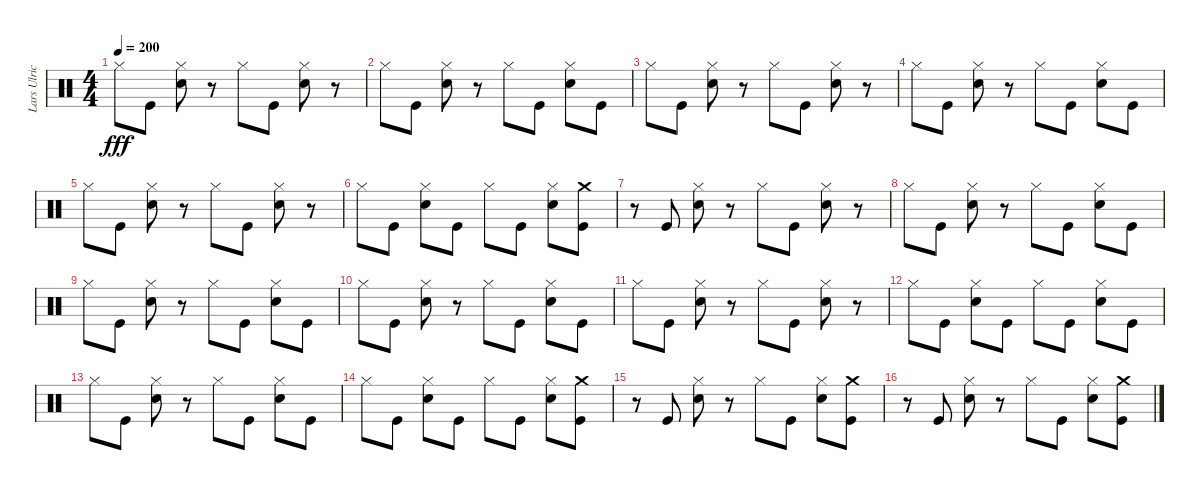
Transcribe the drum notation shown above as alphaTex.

\track ("Lars Ulrich" "Lars Ulric") {instrument percussion}
\staff {score}
\articulation defaults
\ts (4 4)
\tempo 200
\clef neutral
\ks c "Hi-Hat (closed)".8{dy fff} "Kick (hit)".8
("Hi-Hat (closed)" "Snare (hit) 2").8 r.8 "Hi-Hat (closed)".8 "Kick (hit)".8 ("Snare (hit) 2" "Hi-Hat (closed)").8 r.8 |
"Hi-Hat (closed)".8 "Kick (hit)".8 ("Hi-Hat (closed)" "Snare (hit) 2").8 r.8 "Hi-Hat (closed)".8 "Kick (hit)".8 ("Hi-Hat (closed)" "Snare (hit) 2").8 "Kick (hit)".8 |
"Hi-Hat (closed)".8 "Kick (hit)".8 ("Hi-Hat (closed)" "Snare (hit) 2").8 r.8 "Hi-Hat (closed)".8 "Kick (hit)".8 ("Snare (hit) 2" "Hi-Hat (closed)").8 r.8 |
"Hi-Hat (closed)".8 "Kick (hit)".8 ("Hi-Hat (closed)" "Snare (hit) 2").8 r.8 "Hi-Hat (closed)".8 "Kick (hit)".8 ("Hi-Hat (closed)" "Snare (hit) 2").8 "Kick (hit)".8 |
"Hi-Hat (closed)".8 "Kick (hit)".8 ("Hi-Hat (closed)" "Snare (hit) 2").8 r.8 "Hi-Hat (closed)".8 "Kick (hit)".8 ("Snare (hit) 2" "Hi-Hat (closed)").8 r.8 |
"Hi-Hat (closed)".8 "Kick (hit)".8 ("Hi-Hat (closed)" "Snare (hit) 2").8 "Kick (hit)".8 "Hi-Hat (closed)".8 "Kick (hit)".8 ("Hi-Hat (closed)" "Snare (hit) 2").8 ("Crash medium (hit)" "Kick (hit)").8 |
r.8 "Kick (hit)".8 ("Hi-Hat (closed)" "Snare (hit) 2").8 r.8 "Hi-Hat (closed)".8 "Kick (hit)".8 ("Snare (hit) 2" "Hi-Hat (closed)").8 r.8 |
"Hi-Hat (closed)".8 "Kick (hit)".8 ("Hi-Hat (closed)" "Snare (hit) 2").8 r.8 "Hi-Hat (closed)".8 "Kick (hit)".8 ("Hi-Hat (closed)" "Snare (hit) 2").8 "Kick (hit)".8 |
"Hi-Hat (closed)".8 "Kick (hit)".8 ("Hi-Hat (closed)" "Snare (hit) 2").8 r.8 "Hi-Hat (closed)".8 "Kick (hit)".8 ("Hi-Hat (closed)" "Snare (hit) 2").8 "Kick (hit)".8 |
"Hi-Hat (closed)".8 "Kick (hit)".8 ("Hi-Hat (closed)" "Snare (hit) 2").8 r.8 "Hi-Hat (closed)".8 "Kick (hit)".8 ("Hi-Hat (closed)" "Snare (hit) 2").8 "Kick (hit)".8 |
"Hi-Hat (closed)".8 "Kick (hit)".8 ("Hi-Hat (closed)" "Snare (hit) 2").8 r.8 "Hi-Hat (closed)".8 "Kick (hit)".8 ("Hi-Hat (closed)" "Snare (hit) 2").8 r.8 |
"Hi-Hat (closed)".8 "Kick (hit)".8 ("Hi-Hat (closed)" "Snare (hit) 2").8 "Kick (hit)".8 "Hi-Hat (closed)".8 "Kick (hit)".8 ("Hi-Hat (closed)" "Snare (hit) 2").8 "Kick (hit)".8 |
"Hi-Hat (closed)".8 "Kick (hit)".8 ("Hi-Hat (closed)" "Snare (hit) 2").8 r.8 "Hi-Hat (closed)".8 "Kick (hit)".8 ("Snare (hit) 2" "Hi-Hat (closed)").8 "Kick (hit)".8 |
"Hi-Hat (closed)".8 "Kick (hit)".8 ("Hi-Hat (closed)" "Snare (hit) 2").8 "Kick (hit)".8 "Hi-Hat (closed)".8 "Kick (hit)".8 ("Hi-Hat (closed)" "Snare (hit) 2").8 ("Crash medium (hit)" "Kick (hit)").8 |
r.8 "Kick (hit)".8 ("Hi-Hat (closed)" "Snare (hit) 2").8 r.8 "Hi-Hat (closed)".8 "Kick (hit)".8 ("Snare (hit) 2" "Hi-Hat (closed)").8 ("Crash medium (hit)" "Kick (hit)").8 |
r.8 "Kick (hit)".8 ("Hi-Hat (closed)" "Snare (hit) 2").8 r.8 "Hi-Hat (closed)".8 "Kick (hit)".8 ("Snare (hit) 2" "Hi-Hat (closed)").8 ("Crash medium (hit)" "Kick (hit)").8
